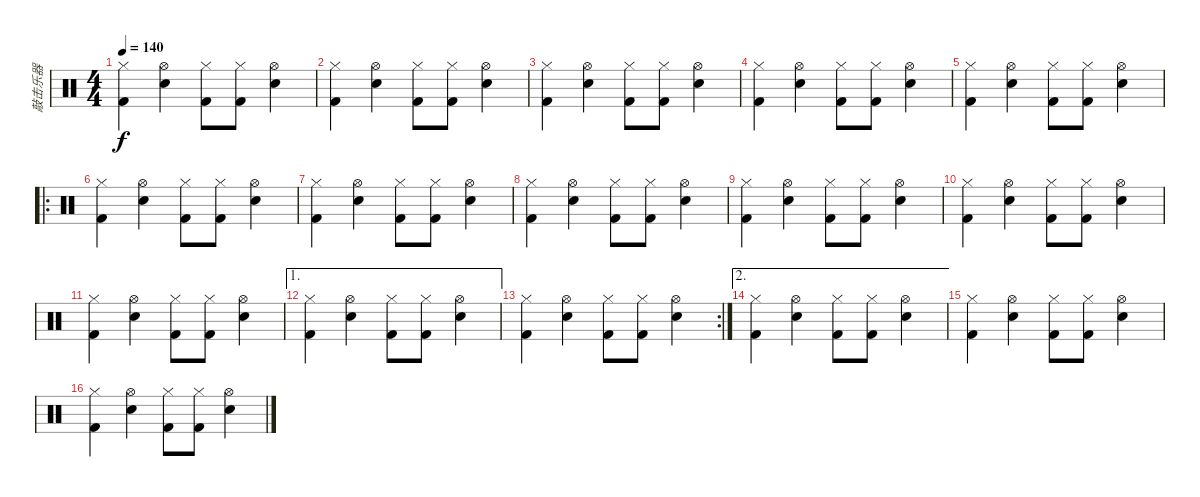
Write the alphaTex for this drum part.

\track ("敲击乐器" "敲击乐器") {instrument percussion}
\staff {score}
\articulation defaults
\ts (4 4)
\tempo 140
\clef neutral
\ks c
("Hi-Hat (closed)" "Kick (hit) 2").4{dy f} ("Hi-Hat (open)" "Electric Snare (hit)").4 ("Hi-Hat (closed)" "Kick (hit) 2").8 ("Hi-Hat (closed)" "Kick (hit) 2").8 ("Hi-Hat (open)" "Electric Snare (hit)").4 |
("Hi-Hat (closed)" "Kick (hit) 2").4 ("Hi-Hat (open)" "Electric Snare (hit)").4 ("Hi-Hat (closed)" "Kick (hit) 2").8 ("Hi-Hat (closed)" "Kick (hit) 2").8 ("Hi-Hat (open)" "Electric Snare (hit)").4 |
("Hi-Hat (closed)" "Kick (hit) 2").4 ("Hi-Hat (open)" "Electric Snare (hit)").4 ("Hi-Hat (closed)" "Kick (hit) 2").8 ("Hi-Hat (closed)" "Kick (hit) 2").8 ("Hi-Hat (open)" "Electric Snare (hit)").4 |
("Hi-Hat (closed)" "Kick (hit) 2").4 ("Hi-Hat (open)" "Electric Snare (hit)").4 ("Hi-Hat (closed)" "Kick (hit) 2").8 ("Hi-Hat (closed)" "Kick (hit) 2").8 ("Hi-Hat (open)" "Electric Snare (hit)").4 |
("Hi-Hat (closed)" "Kick (hit) 2").4 ("Hi-Hat (open)" "Electric Snare (hit)").4 ("Hi-Hat (closed)" "Kick (hit) 2").8 ("Hi-Hat (closed)" "Kick (hit) 2").8 ("Hi-Hat (open)" "Electric Snare (hit)").4 |
\ro
("Hi-Hat (closed)" "Kick (hit) 2").4 ("Hi-Hat (open)" "Electric Snare (hit)").4 ("Hi-Hat (closed)" "Kick (hit) 2").8 ("Hi-Hat (closed)" "Kick (hit) 2").8 ("Hi-Hat (open)" "Electric Snare (hit)").4 |
("Hi-Hat (closed)" "Kick (hit) 2").4 ("Hi-Hat (open)" "Electric Snare (hit)").4 ("Hi-Hat (closed)" "Kick (hit) 2").8 ("Hi-Hat (closed)" "Kick (hit) 2").8 ("Hi-Hat (open)" "Electric Snare (hit)").4 |
("Hi-Hat (closed)" "Kick (hit) 2").4 ("Hi-Hat (open)" "Electric Snare (hit)").4 ("Hi-Hat (closed)" "Kick (hit) 2").8 ("Hi-Hat (closed)" "Kick (hit) 2").8 ("Hi-Hat (open)" "Electric Snare (hit)").4 |
("Hi-Hat (closed)" "Kick (hit) 2").4 ("Hi-Hat (open)" "Electric Snare (hit)").4 ("Hi-Hat (closed)" "Kick (hit) 2").8 ("Hi-Hat (closed)" "Kick (hit) 2").8 ("Hi-Hat (open)" "Electric Snare (hit)").4 |
("Hi-Hat (closed)" "Kick (hit) 2").4 ("Hi-Hat (open)" "Electric Snare (hit)").4 ("Hi-Hat (closed)" "Kick (hit) 2").8 ("Hi-Hat (closed)" "Kick (hit) 2").8 ("Hi-Hat (open)" "Electric Snare (hit)").4 |
("Hi-Hat (closed)" "Kick (hit) 2").4 ("Hi-Hat (open)" "Electric Snare (hit)").4 ("Hi-Hat (closed)" "Kick (hit) 2").8 ("Hi-Hat (closed)" "Kick (hit) 2").8 ("Hi-Hat (open)" "Electric Snare (hit)").4 |
\ae 1
("Hi-Hat (closed)" "Kick (hit) 2").4 ("Hi-Hat (open)" "Electric Snare (hit)").4 ("Hi-Hat (closed)" "Kick (hit) 2").8 ("Hi-Hat (closed)" "Kick (hit) 2").8 ("Hi-Hat (open)" "Electric Snare (hit)").4 |
\rc 2
("Hi-Hat (closed)" "Kick (hit) 2").4 ("Hi-Hat (open)" "Electric Snare (hit)").4 ("Hi-Hat (closed)" "Kick (hit) 2").8 ("Hi-Hat (closed)" "Kick (hit) 2").8 ("Hi-Hat (open)" "Electric Snare (hit)").4 |
\ae 2
("Hi-Hat (closed)" "Kick (hit) 2").4 ("Hi-Hat (open)" "Electric Snare (hit)").4 ("Hi-Hat (closed)" "Kick (hit) 2").8 ("Hi-Hat (closed)" "Kick (hit) 2").8 ("Hi-Hat (open)" "Electric Snare (hit)").4 |
("Hi-Hat (closed)" "Kick (hit) 2").4 ("Hi-Hat (open)" "Electric Snare (hit)").4 ("Hi-Hat (closed)" "Kick (hit) 2").8 ("Hi-Hat (closed)" "Kick (hit) 2").8 ("Hi-Hat (open)" "Electric Snare (hit)").4 |
("Hi-Hat (closed)" "Kick (hit) 2").4 ("Hi-Hat (open)" "Electric Snare (hit)").4 ("Hi-Hat (closed)" "Kick (hit) 2").8 ("Hi-Hat (closed)" "Kick (hit) 2").8 ("Hi-Hat (open)" "Electric Snare (hit)").4
